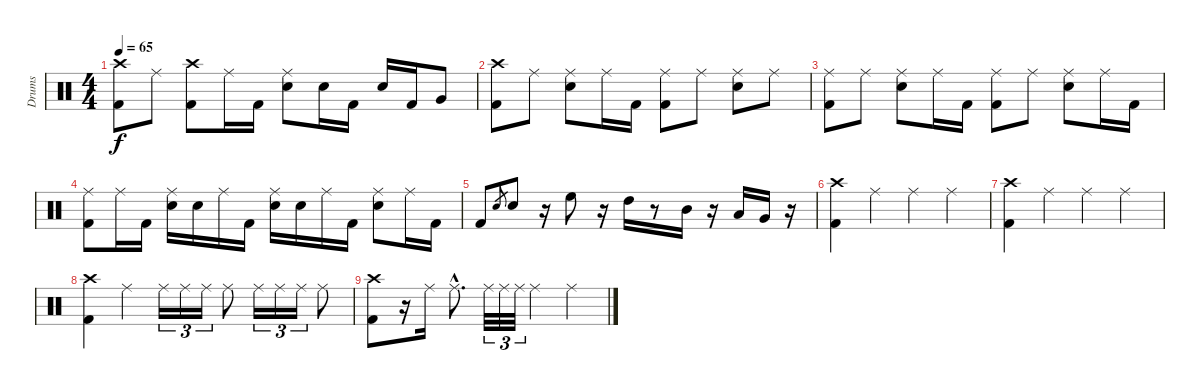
\track ("Drums" "Drums") {instrument percussion}
\staff {score}
\articulation defaults
\ts (4 4)
\tempo 65
\clef neutral
\ks c
("Crash high (hit)" "Kick (hit) 2").8{dy f} "Ride (middle)".8 ("Crash high (hit)" "Kick (hit) 2").8 "Ride (middle)".16 "Kick (hit) 2".16 ("Ride (middle)" "Electric Snare (hit)").8 "Electric Snare (hit)".16 "Kick (hit) 2".16 "Electric Snare (hit)".16 "Kick (hit) 2".16 "Very Low Tom (hit)".8 |
("Crash high (hit)" "Kick (hit) 2").8 "Ride (middle)".8 ("Ride (middle)" "Electric Snare (hit)").8 "Ride (middle)".16 "Kick (hit) 2".16 ("Ride (middle)" "Kick (hit) 2").8 "Ride (middle)".8 ("Ride (middle)" "Electric Snare (hit)").8 "Ride (middle)".8 |
("Ride (middle)" "Kick (hit) 2").8 "Ride (middle)".8 ("Ride (middle)" "Electric Snare (hit)").8 "Ride (middle)".16 "Kick (hit) 2".16 ("Ride (middle)" "Kick (hit) 2").8 "Ride (middle)".8 ("Ride (middle)" "Electric Snare (hit)").8 "Ride (middle)".16 "Kick (hit) 2".16 |
("Ride (middle)" "Kick (hit) 2").8 "Ride (middle)".16 "Kick (hit) 2".16 ("Ride (middle)" "Electric Snare (hit)").16 "Electric Snare (hit)".16 "Ride (middle)".16 "Kick (hit) 2".16 ("Ride (middle)" "Electric Snare (hit)").16 "Electric Snare (hit)".16 "Ride (middle)".16 "Kick (hit) 2".16 ("Ride (middle)" "Electric Snare (hit)").8 "Ride (middle)".16 "Kick (hit) 2".16 |
"Kick (hit) 2".8 "Electric Snare (hit)".8{gr} "Electric Snare (hit)".8 r.16 "High Floor Tom (hit)".8 r.16 "High Tom (hit)".16 r.8 "Mid Tom (hit)".16 r.16 "Low Tom (hit)".16 "Very Low Tom (hit)".16 r.16 |
("Crash high (hit)" "Kick (hit) 2").4 "Ride (middle)".4 "Ride (middle)".4 "Ride (middle)".4 |
("Crash high (hit)" "Kick (hit) 2").4 "Ride (middle)".4 "Ride (middle)".4 "Ride (middle)".4 |
("Crash high (hit)" "Kick (hit) 2").4 "Ride (middle)".4 "Ride (middle)".16{tu (3 2)} "Ride (middle)".16{tu (3 2)} "Ride (middle)".16{tu (3 2)} "Ride (middle)".8 "Ride (middle)".16{tu (3 2)} "Ride (middle)".16{tu (3 2)} "Ride (middle)".16{tu (3 2)} "Ride (middle)".8 |
("Crash high (hit)" "Kick (hit) 2").8 r.16 "Ride (middle)".16 "Ride (middle)"{hac}.8{d} "Ride (middle)".32{tu (3 2)} "Ride (middle)".32{tu (3 2)} "Ride (middle)".32{tu (3 2)} "Ride (middle)".4 "Ride (middle)".4
